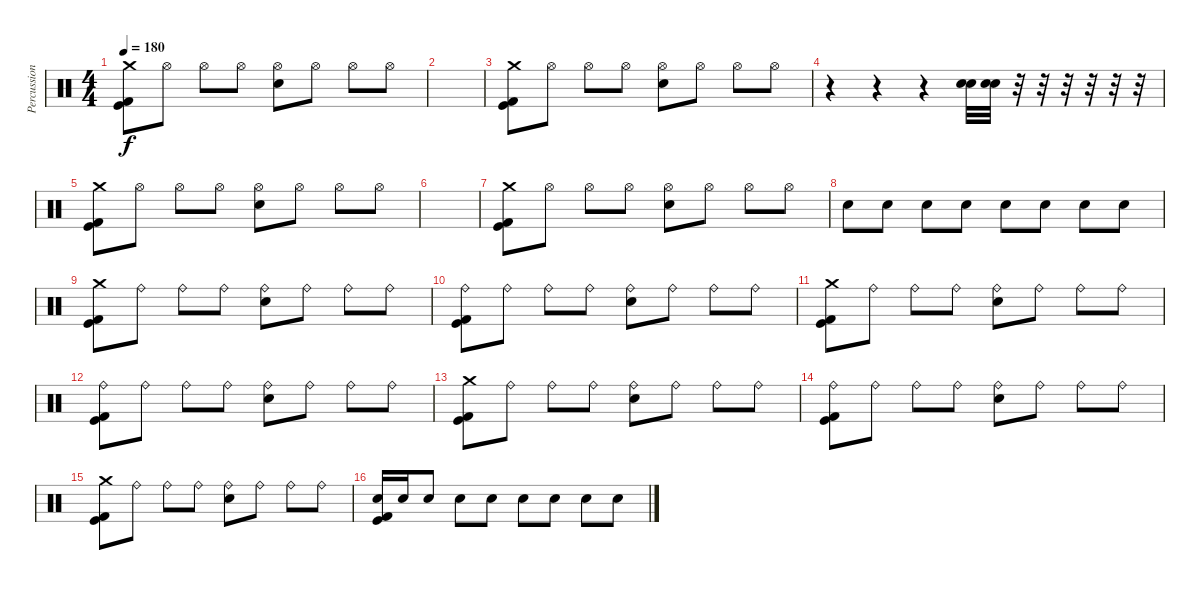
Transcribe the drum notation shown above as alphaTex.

\track ("Percussions" "Percussion") {instrument percussion}
\staff {score}
\articulation defaults
\ts (4 4)
\tempo 180
\clef neutral
\ks c
("Crash medium (hit)" "Kick (hit) 2" "Kick (hit)").8{dy f} "Hi-Hat (open)".8 "Hi-Hat (open)".8 "Hi-Hat (open)".8 ("Hi-Hat (open)" "Electric Snare (hit)").8 "Hi-Hat (open)".8 "Hi-Hat (open)".8 "Hi-Hat (open)".8 |
|
("Crash medium (hit)" "Kick (hit) 2" "Kick (hit)").8 "Hi-Hat (open)".8 "Hi-Hat (open)".8 "Hi-Hat (open)".8 ("Hi-Hat (open)" "Electric Snare (hit)").8 "Hi-Hat (open)".8 "Hi-Hat (open)".8 "Hi-Hat (open)".8 |
r.4 r.4 r.4 ("Electric Snare (hit)" "Electric Snare (hit)").32 ("Electric Snare (hit)" "Electric Snare (hit)").32 r.32 r.32 r.32 r.32 r.32 r.32 |
("Crash medium (hit)" "Kick (hit) 2" "Kick (hit)").8 "Hi-Hat (open)".8 "Hi-Hat (open)".8 "Hi-Hat (open)".8 ("Hi-Hat (open)" "Electric Snare (hit)").8 "Hi-Hat (open)".8 "Hi-Hat (open)".8 "Hi-Hat (open)".8 |
|
("Crash medium (hit)" "Kick (hit) 2" "Kick (hit)").8 "Hi-Hat (open)".8 "Hi-Hat (open)".8 "Hi-Hat (open)".8 ("Hi-Hat (open)" "Electric Snare (hit)").8 "Hi-Hat (open)".8 "Hi-Hat (open)".8 "Hi-Hat (open)".8 |
"Electric Snare (hit)".8 "Electric Snare (hit)".8 "Electric Snare (hit)".8 "Electric Snare (hit)".8 "Electric Snare (hit)".8 "Electric Snare (hit)".8 "Electric Snare (hit)".8 "Electric Snare (hit)".8 |
("Crash medium (hit)" "Kick (hit) 2" "Kick (hit)").8 "Ride (bell)".8 "Ride (bell)".8 "Ride (bell)".8 ("Ride (bell)" "Electric Snare (hit)").8 "Ride (bell)".8 "Ride (bell)".8 "Ride (bell)".8 |
("Ride (bell)" "Kick (hit) 2" "Kick (hit)").8 "Ride (bell)".8 "Ride (bell)".8 "Ride (bell)".8 ("Ride (bell)" "Electric Snare (hit)").8 "Ride (bell)".8 "Ride (bell)".8 "Ride (bell)".8 |
("Crash medium (hit)" "Kick (hit) 2" "Kick (hit)").8 "Ride (bell)".8 "Ride (bell)".8 "Ride (bell)".8 ("Ride (bell)" "Electric Snare (hit)").8 "Ride (bell)".8 "Ride (bell)".8 "Ride (bell)".8 |
("Ride (bell)" "Kick (hit) 2" "Kick (hit)").8 "Ride (bell)".8 "Ride (bell)".8 "Ride (bell)".8 ("Ride (bell)" "Electric Snare (hit)").8 "Ride (bell)".8 "Ride (bell)".8 "Ride (bell)".8 |
("Crash medium (hit)" "Kick (hit) 2" "Kick (hit)").8 "Ride (bell)".8 "Ride (bell)".8 "Ride (bell)".8 ("Ride (bell)" "Electric Snare (hit)").8 "Ride (bell)".8 "Ride (bell)".8 "Ride (bell)".8 |
("Ride (bell)" "Kick (hit) 2" "Kick (hit)").8 "Ride (bell)".8 "Ride (bell)".8 "Ride (bell)".8 ("Ride (bell)" "Electric Snare (hit)").8 "Ride (bell)".8 "Ride (bell)".8 "Ride (bell)".8 |
("Crash medium (hit)" "Kick (hit) 2" "Kick (hit)").8 "Ride (bell)".8 "Ride (bell)".8 "Ride (bell)".8 ("Ride (bell)" "Electric Snare (hit)").8 "Ride (bell)".8 "Ride (bell)".8 "Ride (bell)".8 |
("Electric Snare (hit)" "Kick (hit) 2" "Kick (hit)").16 "Electric Snare (hit)".16 "Electric Snare (hit)".8 "Electric Snare (hit)".8 "Electric Snare (hit)".8 "Electric Snare (hit)".8 "Electric Snare (hit)".8 "Electric Snare (hit)".8 "Electric Snare (hit)".8
